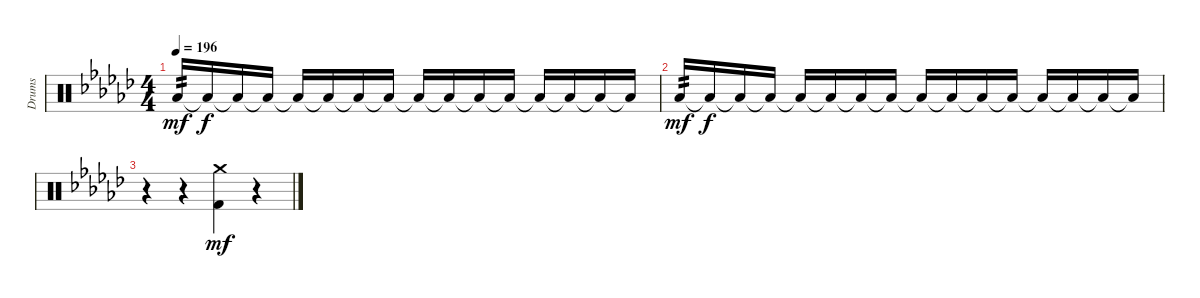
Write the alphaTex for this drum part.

\track ("Drums" "Drums") {instrument percussion}
\staff {score}
\articulation defaults
\ts (4 4)
\tempo 196
\clef neutral
\ks gb "Low Floor Tom (hit)".16{tp 2 dy mf} "Low Floor Tom (hit)"{t}.16{dy f} "Low Floor Tom (hit)"{t}.16 "Low Floor Tom (hit)"{t}.16 "Low Floor Tom (hit)"{t}.16 "Low Floor Tom (hit)"{t}.16 "Low Floor Tom (hit)"{t}.16 "Low Floor Tom (hit)"{t}.16 "Low Floor Tom (hit)"{t}.16 "Low Floor Tom (hit)"{t}.16 "Low Floor Tom (hit)"{t}.16 "Low Floor Tom (hit)"{t}.16 "Low Floor Tom (hit)"{t}.16 "Low Floor Tom (hit)"{t}.16 "Low Floor Tom (hit)"{t}.16 "Low Floor Tom (hit)"{t}.16
|
"Low Floor Tom (hit)".16{tp 2 dy mf} "Low Floor Tom (hit)"{t}.16{dy f} "Low Floor Tom (hit)"{t}.16 "Low Floor Tom (hit)"{t}.16 "Low Floor Tom (hit)"{t}.16 "Low Floor Tom (hit)"{t}.16 "Low Floor Tom (hit)"{t}.16 "Low Floor Tom (hit)"{t}.16 "Low Floor Tom (hit)"{t}.16 "Low Floor Tom (hit)"{t}.16 "Low Floor Tom (hit)"{t}.16 "Low Floor Tom (hit)"{t}.16 "Low Floor Tom (hit)"{t}.16 "Low Floor Tom (hit)"{t}.16 "Low Floor Tom (hit)"{t}.16 "Low Floor Tom (hit)"{t}.16 |
r.4 r.4 ("Crash medium (hit)" "Kick (hit) 2").4{dy mf} r.4
